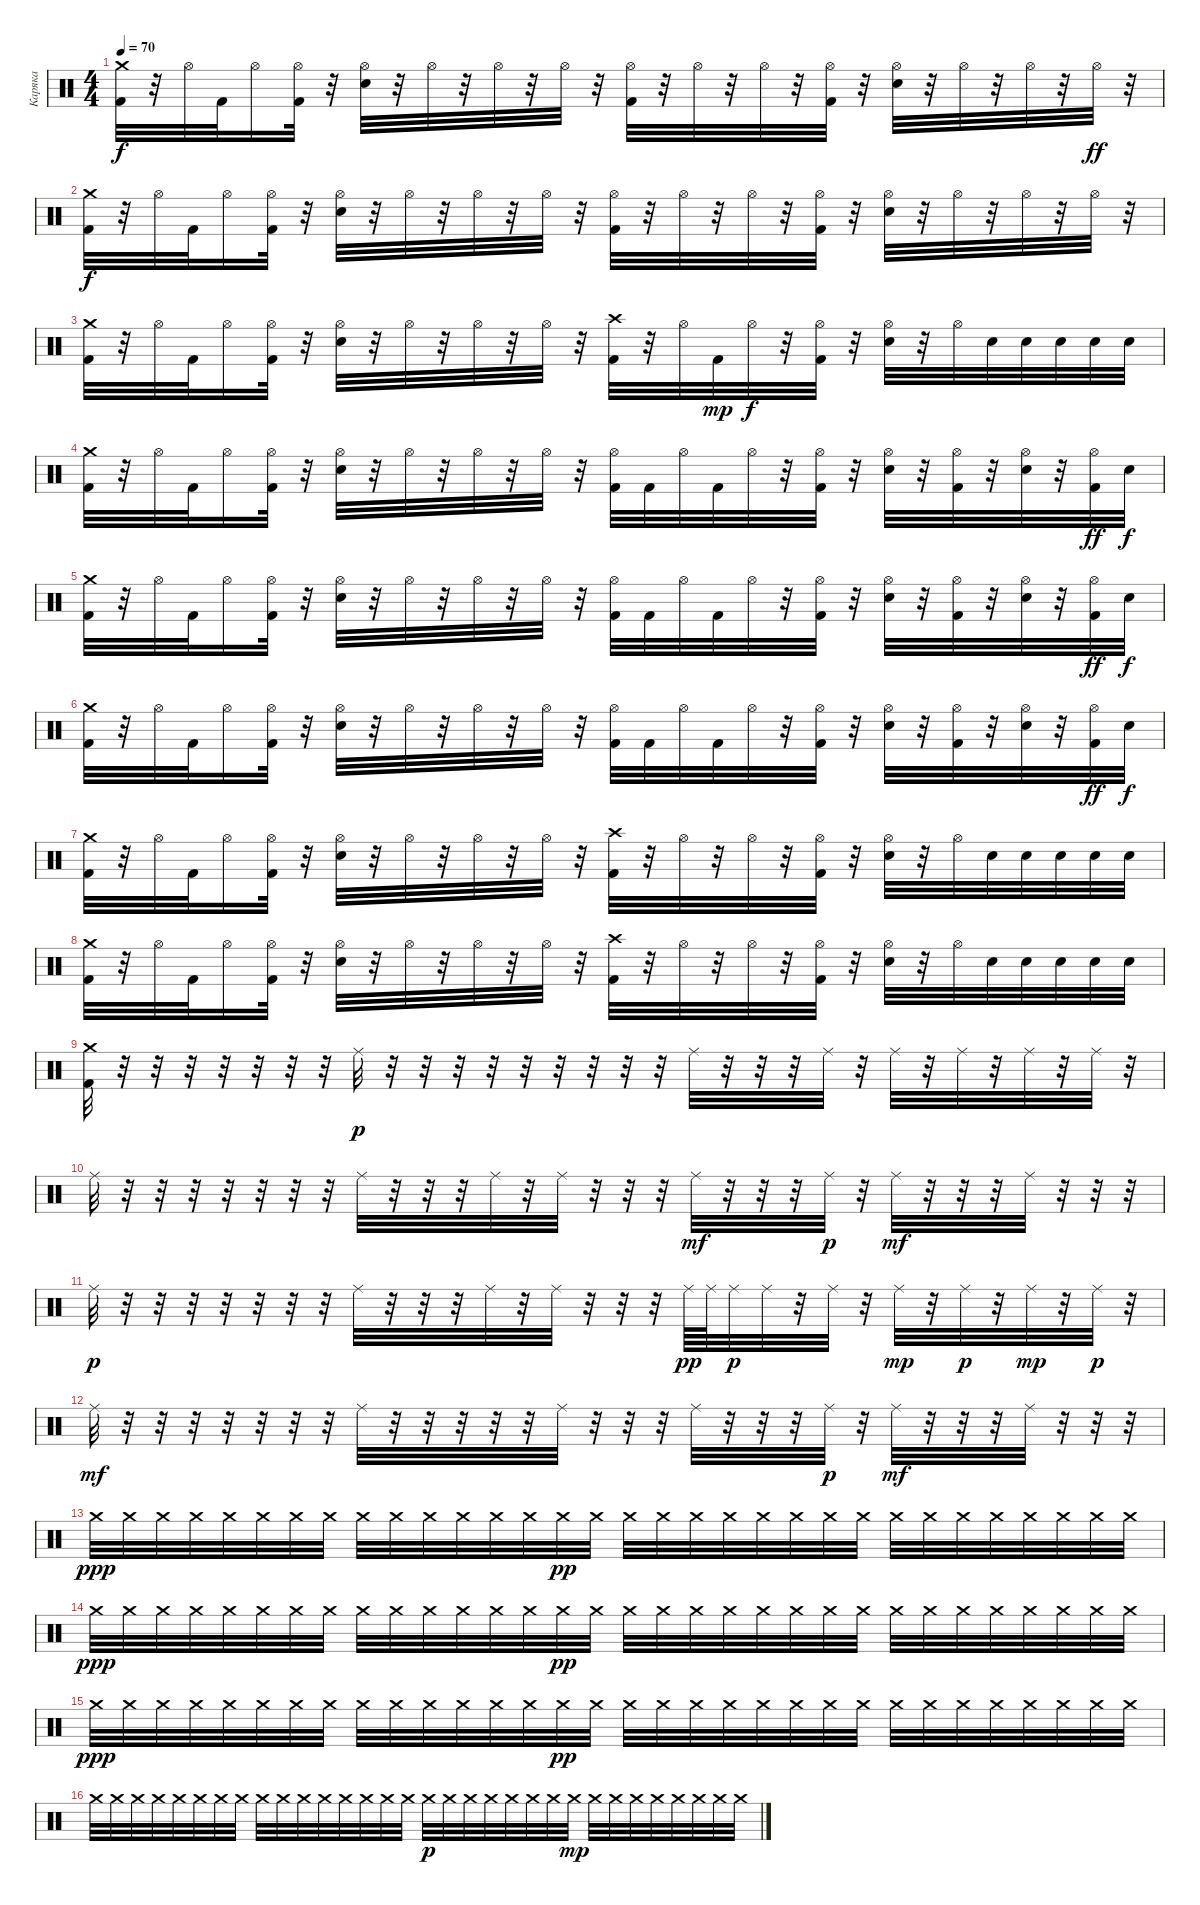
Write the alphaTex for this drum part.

\track ("Каряка" "Каряка") {instrument percussion}
\staff {score}
\articulation defaults
\ts (4 4)
\tempo 70
\clef neutral
\ks c
("Crash medium (hit)" "Kick (hit) 2").32{dy f} r.32 "Hi-Hat (open)".32 "Kick (hit) 2".32 "Hi-Hat (open)".16 ("Hi-Hat (open)" "Kick (hit) 2").32 r.32 ("Hi-Hat (open)" "Snare (hit) 2").32 r.32 "Hi-Hat (open)".32 r.32 "Hi-Hat (open)".32 r.32 "Hi-Hat (open)".32 r.32 ("Hi-Hat (open)" "Kick (hit) 2").32 r.32 "Hi-Hat (open)".32 r.32 "Hi-Hat (open)".32 r.32 ("Hi-Hat (open)" "Kick (hit) 2").32 r.32 ("Hi-Hat (open)" "Snare (hit) 2").32 r.32 "Hi-Hat (open)".32 r.32 "Hi-Hat (open)".32 r.32 "Hi-Hat (open)".32{dy ff} r.32 |
("Crash medium (hit)" "Kick (hit) 2").32{dy f} r.32 "Hi-Hat (open)".32 "Kick (hit) 2".32 "Hi-Hat (open)".16 ("Hi-Hat (open)" "Kick (hit) 2").32 r.32 ("Hi-Hat (open)" "Snare (hit) 2").32 r.32 "Hi-Hat (open)".32 r.32 "Hi-Hat (open)".32 r.32 "Hi-Hat (open)".32 r.32 ("Hi-Hat (open)" "Kick (hit) 2").32 r.32 "Hi-Hat (open)".32 r.32 "Hi-Hat (open)".32 r.32 ("Hi-Hat (open)" "Kick (hit) 2").32 r.32 ("Hi-Hat (open)" "Snare (hit) 2").32 r.32 "Hi-Hat (open)".32 r.32 "Hi-Hat (open)".32 r.32 "Hi-Hat (open)".32 r.32 |
("Crash medium (hit)" "Kick (hit) 2").32 r.32 "Hi-Hat (open)".32 "Kick (hit) 2".32 "Hi-Hat (open)".16 ("Hi-Hat (open)" "Kick (hit) 2").32 r.32 ("Hi-Hat (open)" "Snare (hit) 2").32 r.32 "Hi-Hat (open)".32 r.32 "Hi-Hat (open)".32 r.32 "Hi-Hat (open)".32 r.32 ("Crash high (hit)" "Kick (hit) 2").32 r.32 "Hi-Hat (open)".32 "Kick (hit) 2".32{dy mp} "Hi-Hat (open)".32{dy f} r.32 ("Hi-Hat (open)" "Kick (hit) 2").32 r.32 ("Hi-Hat (open)" "Snare (hit) 2").32 r.32 "Hi-Hat (open)".32 "Snare (hit) 2".32 "Snare (hit) 2".32 "Snare (hit) 2".32 "Snare (hit) 2".32 "Snare (hit) 2".32 |
("Crash medium (hit)" "Kick (hit) 2").32 r.32 "Hi-Hat (open)".32 "Kick (hit) 2".32 "Hi-Hat (open)".16 ("Hi-Hat (open)" "Kick (hit) 2").32 r.32 ("Hi-Hat (open)" "Snare (hit) 2").32 r.32 "Hi-Hat (open)".32 r.32 "Hi-Hat (open)".32 r.32 "Hi-Hat (open)".32 r.32 ("Hi-Hat (open)" "Kick (hit) 2").32 "Kick (hit) 2".32 "Hi-Hat (open)".32 "Kick (hit) 2".32 "Hi-Hat (open)".32 r.32 ("Hi-Hat (open)" "Kick (hit) 2").32 r.32 ("Hi-Hat (open)" "Snare (hit) 2").32 r.32 ("Hi-Hat (open)" "Kick (hit) 2").32 r.32 ("Hi-Hat (open)" "Snare (hit) 2").32 r.32 ("Hi-Hat (open)" "Kick (hit) 2").32{dy ff} "Snare (hit) 2".32{dy f} |
("Crash medium (hit)" "Kick (hit) 2").32 r.32 "Hi-Hat (open)".32 "Kick (hit) 2".32 "Hi-Hat (open)".16 ("Hi-Hat (open)" "Kick (hit) 2").32 r.32 ("Hi-Hat (open)" "Snare (hit) 2").32 r.32 "Hi-Hat (open)".32 r.32 "Hi-Hat (open)".32 r.32 "Hi-Hat (open)".32 r.32 ("Hi-Hat (open)" "Kick (hit) 2").32 "Kick (hit) 2".32 "Hi-Hat (open)".32 "Kick (hit) 2".32 "Hi-Hat (open)".32 r.32 ("Hi-Hat (open)" "Kick (hit) 2").32 r.32 ("Hi-Hat (open)" "Snare (hit) 2").32 r.32 ("Hi-Hat (open)" "Kick (hit) 2").32 r.32 ("Hi-Hat (open)" "Snare (hit) 2").32 r.32 ("Hi-Hat (open)" "Kick (hit) 2").32{dy ff} "Snare (hit) 2".32{dy f} |
("Crash medium (hit)" "Kick (hit) 2").32 r.32 "Hi-Hat (open)".32 "Kick (hit) 2".32 "Hi-Hat (open)".16 ("Hi-Hat (open)" "Kick (hit) 2").32 r.32 ("Hi-Hat (open)" "Snare (hit) 2").32 r.32 "Hi-Hat (open)".32 r.32 "Hi-Hat (open)".32 r.32 "Hi-Hat (open)".32 r.32 ("Hi-Hat (open)" "Kick (hit) 2").32 "Kick (hit) 2".32 "Hi-Hat (open)".32 "Kick (hit) 2".32 "Hi-Hat (open)".32 r.32 ("Hi-Hat (open)" "Kick (hit) 2").32 r.32 ("Hi-Hat (open)" "Snare (hit) 2").32 r.32 ("Hi-Hat (open)" "Kick (hit) 2").32 r.32 ("Hi-Hat (open)" "Snare (hit) 2").32 r.32 ("Hi-Hat (open)" "Kick (hit) 2").32{dy ff} "Snare (hit) 2".32{dy f} |
("Crash medium (hit)" "Kick (hit) 2").32 r.32 "Hi-Hat (open)".32 "Kick (hit) 2".32 "Hi-Hat (open)".16 ("Hi-Hat (open)" "Kick (hit) 2").32 r.32 ("Hi-Hat (open)" "Snare (hit) 2").32 r.32 "Hi-Hat (open)".32 r.32 "Hi-Hat (open)".32 r.32 "Hi-Hat (open)".32 r.32 ("Crash high (hit)" "Kick (hit) 2").32 r.32 "Hi-Hat (open)".32 r.32 "Hi-Hat (open)".32 r.32 ("Hi-Hat (open)" "Kick (hit) 2").32 r.32 ("Hi-Hat (open)" "Snare (hit) 2").32 r.32 "Hi-Hat (open)".32 "Snare (hit) 2".32 "Snare (hit) 2".32 "Snare (hit) 2".32 "Snare (hit) 2".32 "Snare (hit) 2".32 |
("Crash medium (hit)" "Kick (hit) 2").32 r.32 "Hi-Hat (open)".32 "Kick (hit) 2".32 "Hi-Hat (open)".16 ("Hi-Hat (open)" "Kick (hit) 2").32 r.32 ("Hi-Hat (open)" "Snare (hit) 2").32 r.32 "Hi-Hat (open)".32 r.32 "Hi-Hat (open)".32 r.32 "Hi-Hat (open)".32 r.32 ("Crash high (hit)" "Kick (hit) 2").32 r.32 "Hi-Hat (open)".32 r.32 "Hi-Hat (open)".32 r.32 ("Hi-Hat (open)" "Kick (hit) 2").32 r.32 ("Hi-Hat (open)" "Snare (hit) 2").32 r.32 "Hi-Hat (open)".32 "Snare (hit) 2".32 "Snare (hit) 2".32 "Snare (hit) 2".32 "Snare (hit) 2".32 "Snare (hit) 2".32 |
("Crash medium (hit)" "Kick (hit) 2").32 r.32 r.32 r.32 r.32 r.32 r.32 r.32 "Ride (middle)".32{dy p} r.32 r.32 r.32 r.32 r.32 r.32 r.32 r.32 r.32 "Ride (middle)".32 r.32 r.32 r.32 "Ride (middle)".32 r.32 "Ride (middle)".32 r.32 "Ride (middle)".32 r.32 "Ride (middle)".32 r.32 "Ride (middle)".32 r.32 |
"Ride (middle)".32 r.32 r.32 r.32 r.32 r.32 r.32 r.32 "Ride (middle)".32 r.32 r.32 r.32 "Ride (middle)".32 r.32 "Ride (middle)".32 r.32 r.32 r.32 "Ride (middle)".32{dy mf} r.32 r.32 r.32 "Ride (middle)".32{dy p} r.32 "Ride (middle)".32{dy mf} r.32 r.32 r.32 "Ride (middle)".32 r.32 r.32 r.32 |
"Ride (middle)".32{dy p} r.32 r.32 r.32 r.32 r.32 r.32 r.32 "Ride (middle)".32 r.32 r.32 r.32 "Ride (middle)".32 r.32 "Ride (middle)".32 r.32 r.32 r.32 "Ride (middle)".64{dy pp} "Ride (middle)".64 "Ride (middle)".32{dy p} "Ride (middle)".32 r.32 "Ride (middle)".32 r.32 "Ride (middle)".32{dy mp} r.32 "Ride (middle)".32{dy p} r.32 "Ride (middle)".32{dy mp} r.32 "Ride (middle)".32{dy p} r.32 |
"Ride (middle)".32{dy mf} r.32 r.32 r.32 r.32 r.32 r.32 r.32 "Ride (middle)".32 r.32 r.32 r.32 r.32 r.32 "Ride (middle)".32 r.32 r.32 r.32 "Ride (middle)".32 r.32 r.32 r.32 "Ride (middle)".32{dy p} r.32 "Ride (middle)".32{dy mf} r.32 r.32 r.32 "Ride (middle)".32 r.32 r.32 r.32 |
"Crash medium (hit)".32{dy ppp} "Crash medium (hit)".32 "Crash medium (hit)".32 "Crash medium (hit)".32 "Crash medium (hit)".32 "Crash medium (hit)".32 "Crash medium (hit)".32 "Crash medium (hit)".32 "Crash medium (hit)".32 "Crash medium (hit)".32 "Crash medium (hit)".32 "Crash medium (hit)".32 "Crash medium (hit)".32 "Crash medium (hit)".32 "Crash medium (hit)".32{dy pp} "Crash medium (hit)".32 "Crash medium (hit)".32 "Crash medium (hit)".32 "Crash medium (hit)".32 "Crash medium (hit)".32 "Crash medium (hit)".32 "Crash medium (hit)".32 "Crash medium (hit)".32 "Crash medium (hit)".32 "Crash medium (hit)".32 "Crash medium (hit)".32 "Crash medium (hit)".32 "Crash medium (hit)".32 "Crash medium (hit)".32 "Crash medium (hit)".32 "Crash medium (hit)".32 "Crash medium (hit)".32 |
"Crash medium (hit)".32{dy ppp} "Crash medium (hit)".32 "Crash medium (hit)".32 "Crash medium (hit)".32 "Crash medium (hit)".32 "Crash medium (hit)".32 "Crash medium (hit)".32 "Crash medium (hit)".32 "Crash medium (hit)".32 "Crash medium (hit)".32 "Crash medium (hit)".32 "Crash medium (hit)".32 "Crash medium (hit)".32 "Crash medium (hit)".32 "Crash medium (hit)".32{dy pp} "Crash medium (hit)".32 "Crash medium (hit)".32 "Crash medium (hit)".32 "Crash medium (hit)".32 "Crash medium (hit)".32 "Crash medium (hit)".32 "Crash medium (hit)".32 "Crash medium (hit)".32 "Crash medium (hit)".32 "Crash medium (hit)".32 "Crash medium (hit)".32 "Crash medium (hit)".32 "Crash medium (hit)".32 "Crash medium (hit)".32 "Crash medium (hit)".32 "Crash medium (hit)".32 "Crash medium (hit)".32 |
"Crash medium (hit)".32{dy ppp} "Crash medium (hit)".32 "Crash medium (hit)".32 "Crash medium (hit)".32 "Crash medium (hit)".32 "Crash medium (hit)".32 "Crash medium (hit)".32 "Crash medium (hit)".32 "Crash medium (hit)".32 "Crash medium (hit)".32 "Crash medium (hit)".32 "Crash medium (hit)".32 "Crash medium (hit)".32 "Crash medium (hit)".32 "Crash medium (hit)".32{dy pp} "Crash medium (hit)".32 "Crash medium (hit)".32 "Crash medium (hit)".32 "Crash medium (hit)".32 "Crash medium (hit)".32 "Crash medium (hit)".32 "Crash medium (hit)".32 "Crash medium (hit)".32 "Crash medium (hit)".32 "Crash medium (hit)".32 "Crash medium (hit)".32 "Crash medium (hit)".32 "Crash medium (hit)".32 "Crash medium (hit)".32 "Crash medium (hit)".32 "Crash medium (hit)".32 "Crash medium (hit)".32 |
"Crash medium (hit)".32 "Crash medium (hit)".32 "Crash medium (hit)".32 "Crash medium (hit)".32 "Crash medium (hit)".32 "Crash medium (hit)".32 "Crash medium (hit)".32 "Crash medium (hit)".32 "Crash medium (hit)".32 "Crash medium (hit)".32 "Crash medium (hit)".32 "Crash medium (hit)".32 "Crash medium (hit)".32 "Crash medium (hit)".32 "Crash medium (hit)".32 "Crash medium (hit)".32 "Crash medium (hit)".32{dy p} "Crash medium (hit)".32 "Crash medium (hit)".32 "Crash medium (hit)".32 "Crash medium (hit)".32 "Crash medium (hit)".32 "Crash medium (hit)".32 "Crash medium (hit)".32{dy mp} "Crash medium (hit)".32 "Crash medium (hit)".32 "Crash medium (hit)".32 "Crash medium (hit)".32 "Crash medium (hit)".32 "Crash medium (hit)".32 "Crash medium (hit)".32 "Crash medium (hit)".32
